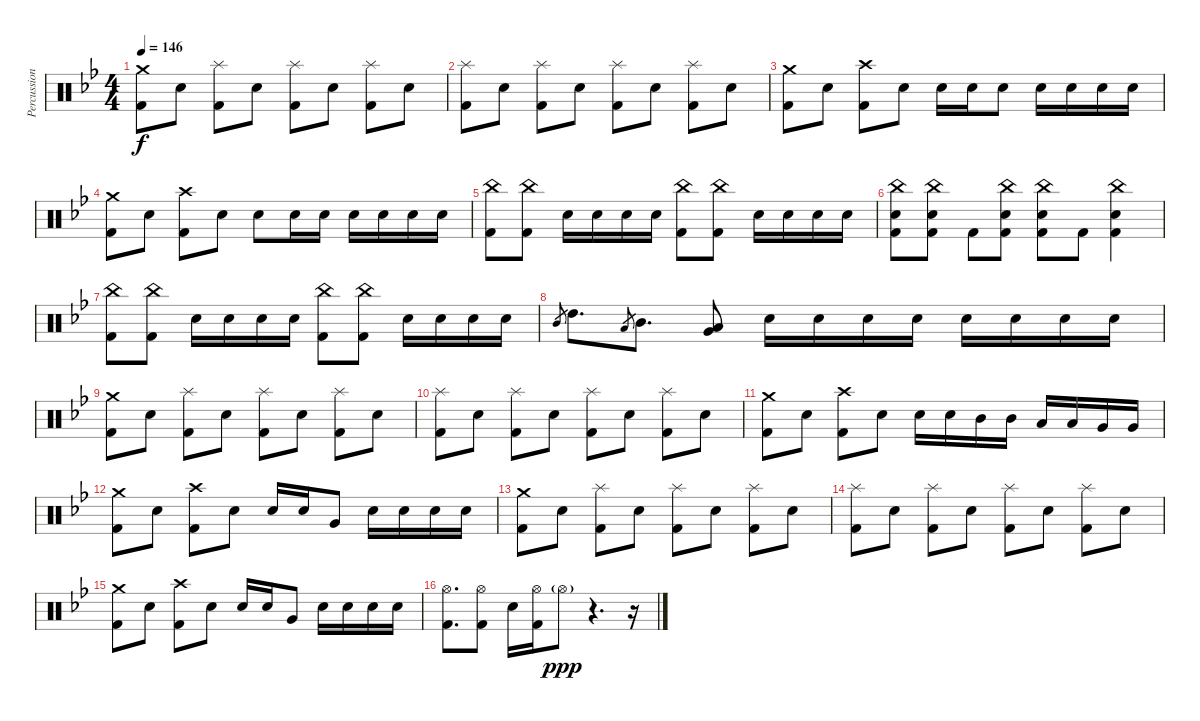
\track ("Percussion" "Percussion") {instrument percussion}
\staff {score}
\articulation defaults
\ts (4 4)
\tempo 146
\clef neutral
\ks gminor
("Crash medium (hit)" "Kick (hit) 2").8{dy f} "Snare (hit) 2".8 ("Splash (hit)" "Kick (hit) 2").8 "Snare (hit) 2".8 ("Splash (hit)" "Kick (hit) 2").8 "Snare (hit) 2".8 ("Splash (hit)" "Kick (hit) 2").8 "Snare (hit) 2".8 |
("Splash (hit)" "Kick (hit) 2").8 "Snare (hit) 2".8 ("Splash (hit)" "Kick (hit) 2").8 "Snare (hit) 2".8 ("Splash (hit)" "Kick (hit) 2").8 "Snare (hit) 2".8 ("Splash (hit)" "Kick (hit) 2").8 "Snare (hit) 2".8 |
("Crash medium (hit)" "Kick (hit) 2").8 "Snare (hit) 2".8 ("Crash high (hit)" "Kick (hit) 2").8 "Snare (hit) 2".8 "Snare (hit) 2".16 "Snare (hit) 2".16 "Snare (hit) 2".8 "Snare (hit) 2".16 "Snare (hit) 2".16 "Snare (hit) 2".16 "Snare (hit) 2".16 |
("Crash medium (hit)" "Kick (hit) 2").8 "Snare (hit) 2".8 ("Crash high (hit)" "Kick (hit) 2").8 "Snare (hit) 2".8 "Snare (hit) 2".8 "Snare (hit) 2".16 "Snare (hit) 2".16 "Snare (hit) 2".16 "Snare (hit) 2".16 "Snare (hit) 2".16 "Snare (hit) 2".16 |
("China (hit)" "Kick (hit) 2").8 ("China (hit)" "Kick (hit) 2").8 "Snare (hit) 2".16 "Snare (hit) 2".16 "Snare (hit) 2".16 "Snare (hit) 2".16 ("China (hit)" "Kick (hit) 2").8 ("China (hit)" "Kick (hit) 2").8 "Snare (hit) 2".16 "Snare (hit) 2".16 "Snare (hit) 2".16 "Snare (hit) 2".16 |
("China (hit)" "Snare (hit) 2" "Kick (hit) 2").8 ("China (hit)" "Snare (hit) 2" "Kick (hit) 2").8 "Kick (hit) 2".8 ("China (hit)" "Snare (hit) 2" "Kick (hit) 2").8 ("China (hit)" "Snare (hit) 2" "Kick (hit) 2").8 "Kick (hit) 2".8 ("China (hit)" "Snare (hit) 2" "Kick (hit) 2").4 |
("China (hit)" "Kick (hit) 2").8 ("China (hit)" "Kick (hit) 2").8 "Snare (hit) 2".16 "Snare (hit) 2".16 "Snare (hit) 2".16 "Snare (hit) 2".16 ("China (hit)" "Kick (hit) 2").8 ("China (hit)" "Kick (hit) 2").8 "Snare (hit) 2".16 "Snare (hit) 2".16 "Snare (hit) 2".16 "Snare (hit) 2".16 |
"Mid Tom (hit)".8{gr} "High Tom (hit)".8{d} "Low Tom (hit)".8{gr} "Mid Tom (hit)".8{d} ("Low Tom (hit)" "Very Low Tom (hit)").8 "Snare (hit) 2".16 "Snare (hit) 2".16 "Snare (hit) 2".16 "Snare (hit) 2".16 "Snare (hit) 2".16 "Snare (hit) 2".16 "Snare (hit) 2".16 "Snare (hit) 2".16 |
("Crash medium (hit)" "Kick (hit) 2").8 "Snare (hit) 2".8 ("Splash (hit)" "Kick (hit) 2").8 "Snare (hit) 2".8 ("Splash (hit)" "Kick (hit) 2").8 "Snare (hit) 2".8 ("Splash (hit)" "Kick (hit) 2").8 "Snare (hit) 2".8 |
("Splash (hit)" "Kick (hit) 2").8 "Snare (hit) 2".8 ("Splash (hit)" "Kick (hit) 2").8 "Snare (hit) 2".8 ("Splash (hit)" "Kick (hit) 2").8 "Snare (hit) 2".8 ("Splash (hit)" "Kick (hit) 2").8 "Snare (hit) 2".8 |
("Crash medium (hit)" "Kick (hit) 2").8 "Snare (hit) 2".8 ("Crash high (hit)" "Kick (hit) 2").8 "Snare (hit) 2".8 "Snare (hit) 2".16 "Snare (hit) 2".16 "Mid Tom (hit)".16 "Mid Tom (hit)".16 "Low Tom (hit)".16 "Low Tom (hit)".16 "Very Low Tom (hit)".16 "Very Low Tom (hit)".16 |
("Crash medium (hit)" "Kick (hit) 2").8 "Snare (hit) 2".8 ("Crash high (hit)" "Kick (hit) 2").8 "Snare (hit) 2".8 "Snare (hit) 2".16 "Snare (hit) 2".16 "Very Low Tom (hit)".8 "Snare (hit) 2".16 "Snare (hit) 2".16 "Snare (hit) 2".16 "Snare (hit) 2".16 |
("Crash medium (hit)" "Kick (hit) 2").8 "Snare (hit) 2".8 ("Splash (hit)" "Kick (hit) 2").8 "Snare (hit) 2".8 ("Splash (hit)" "Kick (hit) 2").8 "Snare (hit) 2".8 ("Splash (hit)" "Kick (hit) 2").8 "Snare (hit) 2".8 |
("Splash (hit)" "Kick (hit) 2").8 "Snare (hit) 2".8 ("Splash (hit)" "Kick (hit) 2").8 "Snare (hit) 2".8 ("Splash (hit)" "Kick (hit) 2").8 "Snare (hit) 2".8 ("Splash (hit)" "Kick (hit) 2").8 "Snare (hit) 2".8 |
("Crash medium (hit)" "Kick (hit) 2").8 "Snare (hit) 2".8 ("Crash high (hit)" "Kick (hit) 2").8 "Snare (hit) 2".8 "Snare (hit) 2".16 "Snare (hit) 2".16 "Very Low Tom (hit)".8 "Snare (hit) 2".16 "Snare (hit) 2".16 "Snare (hit) 2".16 "Snare (hit) 2".16 |
("Hi-Hat (open)" "Kick (hit) 2").8{d} ("Hi-Hat (open)" "Kick (hit) 2").8 "Snare (hit) 2".16 ("Hi-Hat (open)" "Kick (hit) 2").16 "Hi-Hat (open)"{g}.8{dy ppp} r.4{d} r.16
